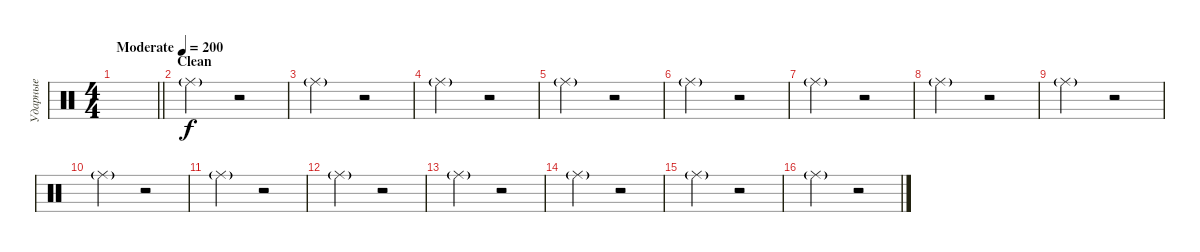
\track ("Ударные" "Ударные") {instrument percussion}
\staff {score}
\articulation defaults
\ts (4 4)
\tempo (200 "Moderate")
\clef neutral
\barLineRight lightlight
\ks c
|
\section ("" "Clean")
"Ride (middle)"{g}.2 r.2 |
"Ride (middle)"{g}.2 r.2 |
"Ride (middle)"{g}.2 r.2 |
"Ride (middle)"{g}.2 r.2 |
"Ride (middle)"{g}.2 r.2 |
"Ride (middle)"{g}.2 r.2 |
"Ride (middle)"{g}.2 r.2 |
"Ride (middle)"{g}.2 r.2 |
"Ride (middle)"{g}.2 r.2 |
"Ride (middle)"{g}.2 r.2 |
"Ride (middle)"{g}.2 r.2 |
"Ride (middle)"{g}.2 r.2 |
"Ride (middle)"{g}.2 r.2 |
"Ride (middle)"{g}.2 r.2 |
"Ride (middle)"{g}.2 r.2
